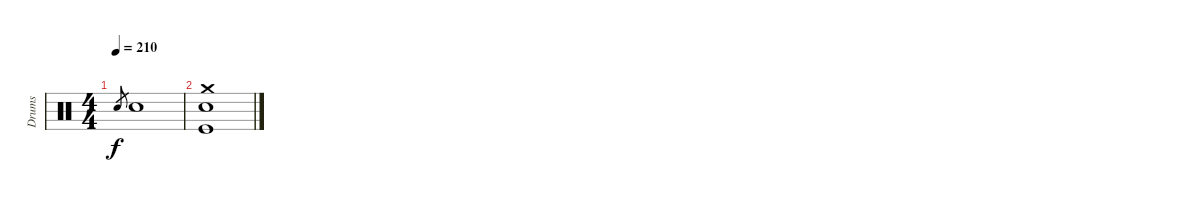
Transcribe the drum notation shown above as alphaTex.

\track ("Drums" "Drums") {instrument percussion}
\staff {score}
\articulation defaults
\ts (4 4)
\tempo 210
\clef neutral
\ks c "Snare (hit) 2".8{gr dy f} "Snare (hit) 2".1
|
("Crash medium (hit)" "Snare (hit) 2" "Kick (hit)").1{volume 0}
